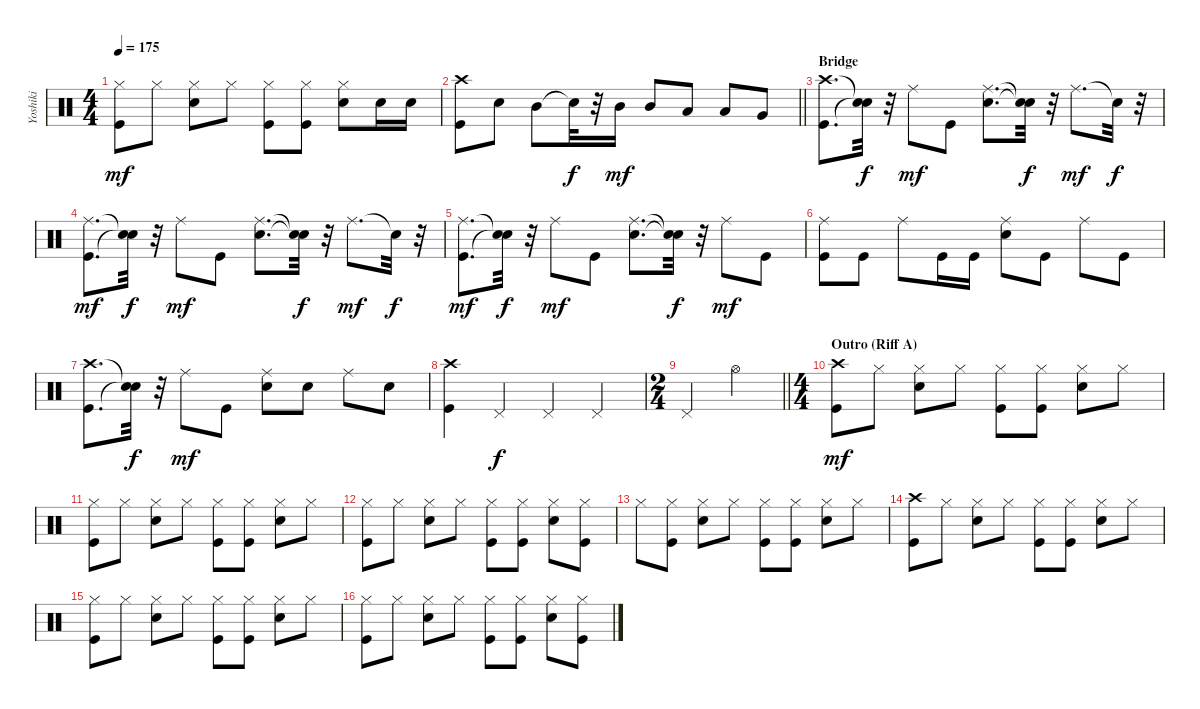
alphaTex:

\track ("Yoshiki" "Yoshiki") {instrument percussion}
\staff {score}
\articulation defaults
\ts (4 4)
\tempo 175
\clef neutral
\ks c
("Hi-Hat (closed)" "Kick (hit)").8{dy mf} "Hi-Hat (closed)".8 ("Snare (hit) 2" "Hi-Hat (closed)").8 "Hi-Hat (closed)".8 ("Hi-Hat (closed)" "Kick (hit)").8 ("Hi-Hat (closed)" "Kick (hit)").8 ("Snare (hit) 2" "Hi-Hat (closed)").8 "Snare (hit) 2".16 "Snare (hit) 2".16 |
\barLineRight lightlight
("Crash high (hit)" "Kick (hit)").8 "Snare (hit) 2".8 "Mid Tom (hit)".8 "Snare (hit)"{t}.32{dy f} r.32 "Mid Tom (hit)".16{dy mf} "Mid Tom (hit)".8 "Low Tom (hit)".8 "Low Tom (hit)".8 "Very Low Tom (hit)".8 |
\section ("" "Bridge")
("Crash high (hit)" "Kick (hit)").8{d} ("Snare (hit)"{t} "Snare (hit)"{t}).32{dy f} r.32 "Ride (middle)".8{dy mf} "Kick (hit)".8 ("Snare (hit) 2" "Ride (middle)").8{d} ("Snare (hit)"{t} "Snare (hit)"{t}).32{dy f} r.32 "Ride (middle)".8{d dy mf} "Snare (hit)"{t}.32{dy f} r.32 |
("Ride (middle)" "Kick (hit)").8{d dy mf} ("Snare (hit)"{t} "Snare (hit)"{t}).32{dy f} r.32 "Ride (middle)".8{dy mf} "Kick (hit)".8 ("Snare (hit) 2" "Ride (middle)").8{d} ("Snare (hit)"{t} "Snare (hit)"{t}).32{dy f} r.32 "Ride (middle)".8{d dy mf} "Snare (hit)"{t}.32{dy f} r.32 |
("Ride (middle)" "Kick (hit)").8{d dy mf} ("Snare (hit)"{t} "Snare (hit)"{t}).32{dy f} r.32 "Ride (middle)".8{dy mf} "Kick (hit)".8 ("Snare (hit) 2" "Ride (middle)").8{d} ("Snare (hit)"{t} "Snare (hit)"{t}).32{dy f} r.32 "Ride (middle)".8{dy mf} "Kick (hit)".8 |
("Ride (middle)" "Kick (hit)").8 "Kick (hit)".8 "Ride (middle)".8 "Kick (hit)".16 "Kick (hit)".16 ("Snare (hit) 2" "Ride (middle)").8 "Kick (hit)".8 "Ride (middle)".8 "Kick (hit)".8 |
("Crash high (hit)" "Kick (hit)").8{d} ("Snare (hit)"{t} "Snare (hit)"{t}).32{dy f} r.32 "Ride (middle)".8{dy mf} "Kick (hit)".8 ("Snare (hit) 2" "Ride (middle)").8 "Snare (hit) 2".8 "Ride (middle)".8 "Snare (hit) 2".8 |
("Crash high (hit)" "Kick (hit)").4 "Pedal Hi-Hat (hit)".4{dy f} "Pedal Hi-Hat (hit)".4 "Pedal Hi-Hat (hit)".4 |
\ts (2 4)
\barLineRight lightlight "Pedal Hi-Hat (hit)".4 "Hi-Hat (open)".4
|
\ts (4 4)
\section ("" "Outro (Riff A)")
("Crash high (hit)" "Kick (hit)").8{dy mf} "Hi-Hat (closed)".8 ("Snare (hit) 2" "Hi-Hat (closed)").8 "Hi-Hat (closed)".8 ("Hi-Hat (closed)" "Kick (hit)").8 ("Hi-Hat (closed)" "Kick (hit)").8 ("Snare (hit) 2" "Hi-Hat (closed)").8 "Hi-Hat (closed)".8 |
("Hi-Hat (closed)" "Kick (hit)").8 "Hi-Hat (closed)".8 ("Snare (hit) 2" "Hi-Hat (closed)").8 "Hi-Hat (closed)".8 ("Hi-Hat (closed)" "Kick (hit)").8 ("Hi-Hat (closed)" "Kick (hit)").8 ("Snare (hit) 2" "Hi-Hat (closed)").8 "Hi-Hat (closed)".8 |
("Hi-Hat (closed)" "Kick (hit)").8 "Hi-Hat (closed)".8 ("Snare (hit) 2" "Hi-Hat (closed)").8 "Hi-Hat (closed)".8 ("Hi-Hat (closed)" "Kick (hit)").8 ("Hi-Hat (closed)" "Kick (hit)").8 ("Snare (hit) 2" "Hi-Hat (closed)").8 ("Hi-Hat (closed)" "Kick (hit)").8 |
"Hi-Hat (closed)".8 ("Hi-Hat (closed)" "Kick (hit)").8 ("Snare (hit) 2" "Hi-Hat (closed)").8 "Hi-Hat (closed)".8 ("Kick (hit)" "Hi-Hat (closed)").8 ("Kick (hit)" "Hi-Hat (closed)").8 ("Snare (hit) 2" "Hi-Hat (closed)").8 "Hi-Hat (closed)".8 |
("Crash high (hit)" "Kick (hit)").8 "Hi-Hat (closed)".8 ("Snare (hit) 2" "Hi-Hat (closed)").8 "Hi-Hat (closed)".8 ("Hi-Hat (closed)" "Kick (hit)").8 ("Hi-Hat (closed)" "Kick (hit)").8 ("Snare (hit) 2" "Hi-Hat (closed)").8 "Hi-Hat (closed)".8 |
("Hi-Hat (closed)" "Kick (hit)").8 "Hi-Hat (closed)".8 ("Snare (hit) 2" "Hi-Hat (closed)").8 "Hi-Hat (closed)".8 ("Hi-Hat (closed)" "Kick (hit)").8 ("Hi-Hat (closed)" "Kick (hit)").8 ("Snare (hit) 2" "Hi-Hat (closed)").8 "Hi-Hat (closed)".8 |
("Hi-Hat (closed)" "Kick (hit)").8 "Hi-Hat (closed)".8 ("Snare (hit) 2" "Hi-Hat (closed)").8 "Hi-Hat (closed)".8 ("Hi-Hat (closed)" "Kick (hit)").8 ("Hi-Hat (closed)" "Kick (hit)").8 ("Snare (hit) 2" "Hi-Hat (closed)").8 ("Hi-Hat (closed)" "Kick (hit)").8
